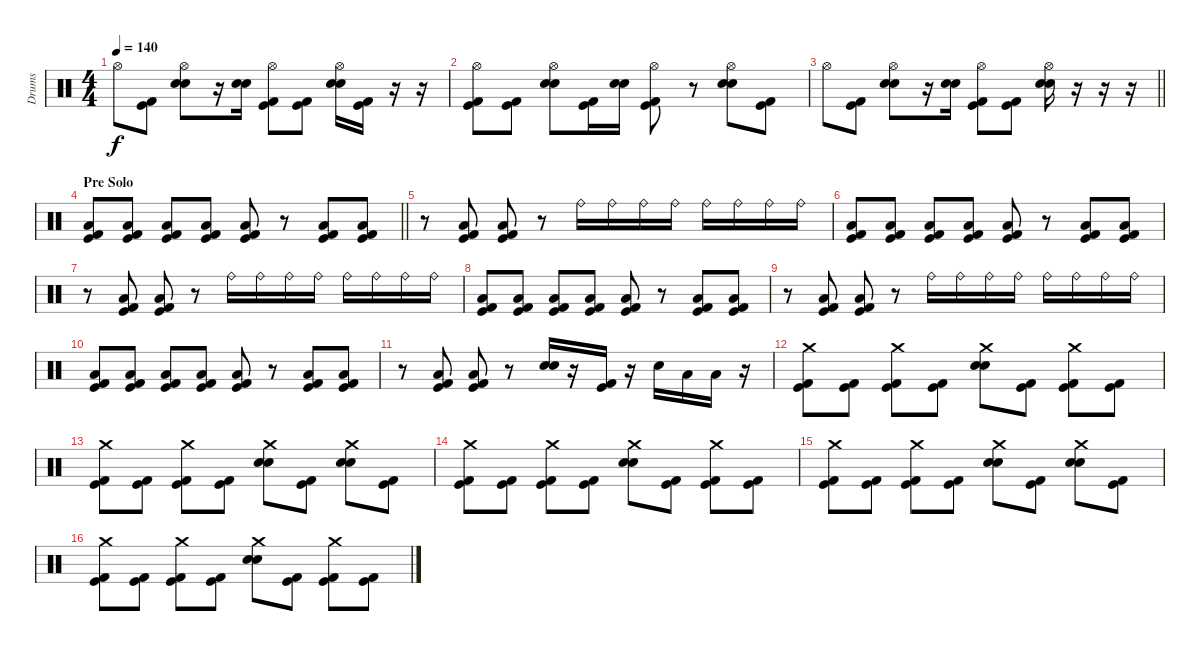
\track ("Drums" "Drums") {instrument percussion}
\staff {score}
\articulation defaults
\ts (4 4)
\tempo 140
\clef neutral
\ks c "Hi-Hat (open)".8{dy f}
("Kick (hit) 2" "Kick (hit)").8 ("Hi-Hat (open)" "Electric Snare (hit)" "Electric Snare (hit)").8 r.16 ("Electric Snare (hit)" "Electric Snare (hit)").16 ("Hi-Hat (open)" "Kick (hit) 2" "Kick (hit)").8 ("Kick (hit) 2" "Kick (hit)").8 ("Hi-Hat (open)" "Electric Snare (hit)" "Electric Snare (hit)").16 ("Kick (hit) 2" "Kick (hit)").16 r.16 r.16 |
("Hi-Hat (open)" "Kick (hit) 2" "Kick (hit)").8 ("Kick (hit) 2" "Kick (hit)").8 ("Hi-Hat (open)" "Electric Snare (hit)" "Electric Snare (hit)").8 ("Kick (hit) 2" "Kick (hit)").16 ("Electric Snare (hit)" "Electric Snare (hit)").16 ("Hi-Hat (open)" "Kick (hit) 2" "Kick (hit)").8 r.8 ("Hi-Hat (open)" "Electric Snare (hit)" "Electric Snare (hit)").8 ("Kick (hit)" "Kick (hit) 2").8 |
\barLineRight lightlight "Hi-Hat (open)".8
("Kick (hit) 2" "Kick (hit)").8 ("Hi-Hat (open)" "Electric Snare (hit)" "Electric Snare (hit)").8 r.16 ("Electric Snare (hit)" "Electric Snare (hit)").16 ("Hi-Hat (open)" "Kick (hit) 2" "Kick (hit)").8 ("Kick (hit) 2" "Kick (hit)").8 ("Hi-Hat (open)" "Electric Snare (hit)" "Electric Snare (hit)").16 r.16 r.16 r.16 |
\section ("" "Pre Solo")
\barLineRight lightlight
("Low Floor Tom (hit)" "Kick (hit) 2" "Kick (hit)").8 ("Low Floor Tom (hit)" "Kick (hit) 2" "Kick (hit)").8 ("Low Floor Tom (hit)" "Kick (hit) 2" "Kick (hit)").8 ("Low Floor Tom (hit)" "Kick (hit)" "Kick (hit) 2").8 ("Low Floor Tom (hit)" "Kick (hit) 2" "Kick (hit)").8 r.8 ("Low Floor Tom (hit)" "Kick (hit) 2" "Kick (hit)").8 ("Low Floor Tom (hit)" "Kick (hit)" "Kick (hit) 2").8 |
r.8 ("Low Floor Tom (hit)" "Kick (hit) 2" "Kick (hit)").8 ("Low Floor Tom (hit)" "Kick (hit) 2" "Kick (hit)").8 r.8 "Ride (bell)".16 "Ride (bell)".16 "Ride (bell)".16 "Ride (bell)".16 "Ride (bell)".16 "Ride (bell)".16 "Ride (bell)".16 "Ride (bell)".16 |
("Low Floor Tom (hit)" "Kick (hit) 2" "Kick (hit)").8 ("Low Floor Tom (hit)" "Kick (hit) 2" "Kick (hit)").8 ("Low Floor Tom (hit)" "Kick (hit) 2" "Kick (hit)").8 ("Low Floor Tom (hit)" "Kick (hit)" "Kick (hit) 2").8 ("Low Floor Tom (hit)" "Kick (hit) 2" "Kick (hit)").8 r.8 ("Low Floor Tom (hit)" "Kick (hit) 2" "Kick (hit)").8 ("Low Floor Tom (hit)" "Kick (hit)" "Kick (hit) 2").8 |
r.8 ("Low Floor Tom (hit)" "Kick (hit) 2" "Kick (hit)").8 ("Low Floor Tom (hit)" "Kick (hit) 2" "Kick (hit)").8 r.8 "Ride (bell)".16 "Ride (bell)".16 "Ride (bell)".16 "Ride (bell)".16 "Ride (bell)".16 "Ride (bell)".16 "Ride (bell)".16 "Ride (bell)".16 |
("Low Floor Tom (hit)" "Kick (hit) 2" "Kick (hit)").8 ("Low Floor Tom (hit)" "Kick (hit) 2" "Kick (hit)").8 ("Low Floor Tom (hit)" "Kick (hit) 2" "Kick (hit)").8 ("Low Floor Tom (hit)" "Kick (hit)" "Kick (hit) 2").8 ("Low Floor Tom (hit)" "Kick (hit) 2" "Kick (hit)").8 r.8 ("Low Floor Tom (hit)" "Kick (hit) 2" "Kick (hit)").8 ("Low Floor Tom (hit)" "Kick (hit)" "Kick (hit) 2").8 |
r.8 ("Low Floor Tom (hit)" "Kick (hit) 2" "Kick (hit)").8 ("Low Floor Tom (hit)" "Kick (hit) 2" "Kick (hit)").8 r.8 "Ride (bell)".16 "Ride (bell)".16 "Ride (bell)".16 "Ride (bell)".16 "Ride (bell)".16 "Ride (bell)".16 "Ride (bell)".16 "Ride (bell)".16 |
("Low Floor Tom (hit)" "Kick (hit) 2" "Kick (hit)").8 ("Low Floor Tom (hit)" "Kick (hit) 2" "Kick (hit)").8 ("Low Floor Tom (hit)" "Kick (hit) 2" "Kick (hit)").8 ("Low Floor Tom (hit)" "Kick (hit)" "Kick (hit) 2").8 ("Low Floor Tom (hit)" "Kick (hit) 2" "Kick (hit)").8 r.8 ("Low Floor Tom (hit)" "Kick (hit) 2" "Kick (hit)").8 ("Low Floor Tom (hit)" "Kick (hit)" "Kick (hit) 2").8 |
r.8 ("Low Floor Tom (hit)" "Kick (hit) 2" "Kick (hit)").8 ("Low Floor Tom (hit)" "Kick (hit) 2" "Kick (hit)").8 r.8 ("Electric Snare (hit)" "Electric Snare (hit)").16 r.16 ("Kick (hit) 2" "Kick (hit)").16 r.16 "Electric Snare (hit)".16 "Low Tom (hit)".16 "Low Floor Tom (hit)".16 r.16 |
("Crash medium (hit)" "Kick (hit) 2" "Kick (hit)").8 ("Kick (hit) 2" "Kick (hit)").8 ("Crash medium (hit)" "Kick (hit) 2" "Kick (hit)").8 ("Kick (hit)" "Kick (hit) 2").8 ("Crash medium (hit)" "Electric Snare (hit)" "Electric Snare (hit)").8 ("Kick (hit) 2" "Kick (hit)").8 ("Crash medium (hit)" "Kick (hit) 2" "Kick (hit)").8 ("Kick (hit)" "Kick (hit) 2").8 |
("Crash medium (hit)" "Kick (hit) 2" "Kick (hit)").8 ("Kick (hit) 2" "Kick (hit)").8 ("Crash medium (hit)" "Kick (hit) 2" "Kick (hit)").8 ("Kick (hit)" "Kick (hit) 2").8 ("Crash medium (hit)" "Electric Snare (hit)" "Electric Snare (hit)").8 ("Kick (hit) 2" "Kick (hit)").8 ("Crash medium (hit)" "Electric Snare (hit)" "Electric Snare (hit)").8 ("Kick (hit)" "Kick (hit) 2").8 |
("Crash medium (hit)" "Kick (hit) 2" "Kick (hit)").8 ("Kick (hit) 2" "Kick (hit)").8 ("Crash medium (hit)" "Kick (hit) 2" "Kick (hit)").8 ("Kick (hit)" "Kick (hit) 2").8 ("Crash medium (hit)" "Electric Snare (hit)" "Electric Snare (hit)").8 ("Kick (hit) 2" "Kick (hit)").8 ("Crash medium (hit)" "Kick (hit) 2" "Kick (hit)").8 ("Kick (hit)" "Kick (hit) 2").8 |
("Crash medium (hit)" "Kick (hit) 2" "Kick (hit)").8 ("Kick (hit) 2" "Kick (hit)").8 ("Crash medium (hit)" "Kick (hit) 2" "Kick (hit)").8 ("Kick (hit)" "Kick (hit) 2").8 ("Crash medium (hit)" "Electric Snare (hit)" "Electric Snare (hit)").8 ("Kick (hit) 2" "Kick (hit)").8 ("Crash medium (hit)" "Electric Snare (hit)" "Electric Snare (hit)").8 ("Kick (hit)" "Kick (hit) 2").8 |
("Crash medium (hit)" "Kick (hit) 2" "Kick (hit)").8 ("Kick (hit) 2" "Kick (hit)").8 ("Crash medium (hit)" "Kick (hit) 2" "Kick (hit)").8 ("Kick (hit)" "Kick (hit) 2").8 ("Crash medium (hit)" "Electric Snare (hit)" "Electric Snare (hit)").8 ("Kick (hit) 2" "Kick (hit)").8 ("Crash medium (hit)" "Kick (hit) 2" "Kick (hit)").8 ("Kick (hit)" "Kick (hit) 2").8
